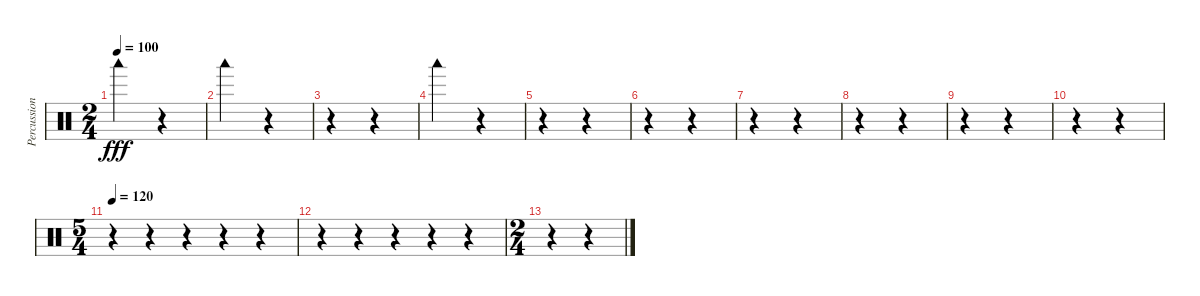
\track ("Percussion" "Percussion") {instrument percussion}
\staff {score}
\articulation defaults
\ts (2 4)
\tempo 100
\clef neutral
\ks c "Woodblock low (hit)".4{dy fff}
r.4 |
"Woodblock low (hit)".4 r.4 |
r.4 r.4 |
"Woodblock low (hit)".4 r.4 |
r.4 r.4 |
r.4 r.4 |
r.4 r.4 |
r.4 r.4 |
r.4 r.4 |
r.4 r.4 |
\ts (5 4)
\tempo 120
r.4 r.4 r.4 r.4 r.4 |
r.4 r.4 r.4 r.4 r.4 |
\ts (2 4)
r.4 r.4
